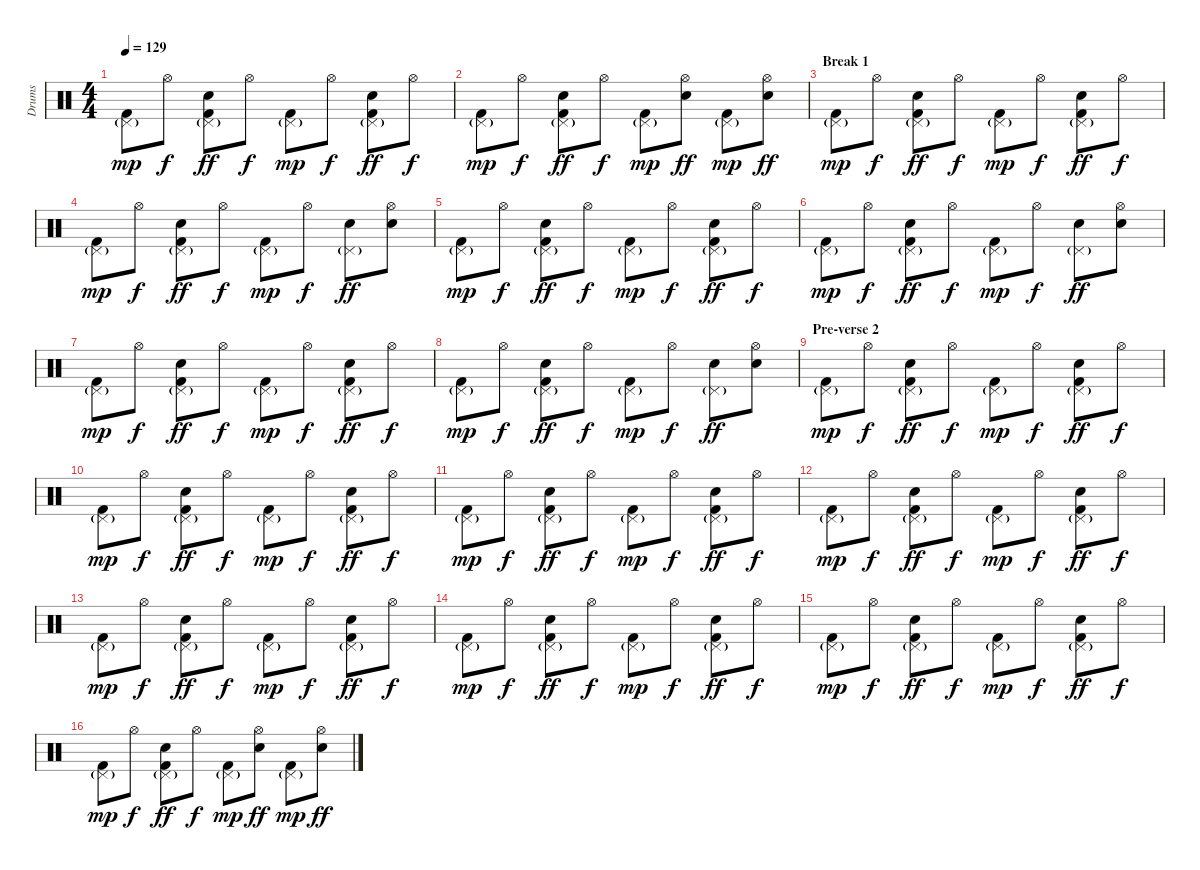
\track ("Drums" "Drums") {instrument percussion}
\staff {score}
\articulation defaults
\ts (4 4)
\tempo 129
\clef neutral
\ks c
("Pedal Hi-Hat (hit)"{g} "Kick (hit) 2").8{dy mp} "Hi-Hat (open)".8{dy f} ("Pedal Hi-Hat (hit)"{g} "Electric Snare (hit)" "Kick (hit) 2").8{dy ff} "Hi-Hat (open)".8{dy f} ("Pedal Hi-Hat (hit)"{g} "Kick (hit) 2").8{dy mp} "Hi-Hat (open)".8{dy f} ("Pedal Hi-Hat (hit)"{g} "Electric Snare (hit)" "Kick (hit) 2").8{dy ff} "Hi-Hat (open)".8{dy f} |
("Pedal Hi-Hat (hit)"{g} "Kick (hit) 2").8{dy mp} "Hi-Hat (open)".8{dy f} ("Pedal Hi-Hat (hit)"{g} "Electric Snare (hit)" "Kick (hit) 2").8{dy ff} "Hi-Hat (open)".8{dy f} ("Pedal Hi-Hat (hit)"{g} "Kick (hit) 2").8{dy mp} ("Hi-Hat (open)" "Electric Snare (hit)").8{dy ff} ("Pedal Hi-Hat (hit)"{g} "Kick (hit) 2").8{dy mp} ("Hi-Hat (open)" "Electric Snare (hit)").8{dy ff} |
\section ("" "Break 1")
("Pedal Hi-Hat (hit)"{g} "Kick (hit) 2").8{dy mp} "Hi-Hat (open)".8{dy f} ("Pedal Hi-Hat (hit)"{g} "Electric Snare (hit)" "Kick (hit) 2").8{dy ff} "Hi-Hat (open)".8{dy f} ("Pedal Hi-Hat (hit)"{g} "Kick (hit) 2").8{dy mp} "Hi-Hat (open)".8{dy f} ("Pedal Hi-Hat (hit)"{g} "Electric Snare (hit)" "Kick (hit) 2").8{dy ff} "Hi-Hat (open)".8{dy f} |
("Pedal Hi-Hat (hit)"{g} "Kick (hit) 2").8{dy mp} "Hi-Hat (open)".8{dy f} ("Pedal Hi-Hat (hit)"{g} "Electric Snare (hit)" "Kick (hit) 2").8{dy ff} "Hi-Hat (open)".8{dy f} ("Pedal Hi-Hat (hit)"{g} "Kick (hit) 2").8{dy mp} "Hi-Hat (open)".8{dy f} ("Pedal Hi-Hat (hit)"{g} "Electric Snare (hit)").8{dy ff} ("Hi-Hat (open)" "Electric Snare (hit)").8 |
("Pedal Hi-Hat (hit)"{g} "Kick (hit) 2").8{dy mp} "Hi-Hat (open)".8{dy f} ("Pedal Hi-Hat (hit)"{g} "Electric Snare (hit)" "Kick (hit) 2").8{dy ff} "Hi-Hat (open)".8{dy f} ("Pedal Hi-Hat (hit)"{g} "Kick (hit) 2").8{dy mp} "Hi-Hat (open)".8{dy f} ("Pedal Hi-Hat (hit)"{g} "Electric Snare (hit)" "Kick (hit) 2").8{dy ff} "Hi-Hat (open)".8{dy f} |
("Pedal Hi-Hat (hit)"{g} "Kick (hit) 2").8{dy mp} "Hi-Hat (open)".8{dy f} ("Pedal Hi-Hat (hit)"{g} "Electric Snare (hit)" "Kick (hit) 2").8{dy ff} "Hi-Hat (open)".8{dy f} ("Pedal Hi-Hat (hit)"{g} "Kick (hit) 2").8{dy mp} "Hi-Hat (open)".8{dy f} ("Pedal Hi-Hat (hit)"{g} "Electric Snare (hit)").8{dy ff} ("Hi-Hat (open)" "Electric Snare (hit)").8 |
("Pedal Hi-Hat (hit)"{g} "Kick (hit) 2").8{dy mp} "Hi-Hat (open)".8{dy f} ("Pedal Hi-Hat (hit)"{g} "Electric Snare (hit)" "Kick (hit) 2").8{dy ff} "Hi-Hat (open)".8{dy f} ("Pedal Hi-Hat (hit)"{g} "Kick (hit) 2").8{dy mp} "Hi-Hat (open)".8{dy f} ("Pedal Hi-Hat (hit)"{g} "Electric Snare (hit)" "Kick (hit) 2").8{dy ff} "Hi-Hat (open)".8{dy f} |
("Pedal Hi-Hat (hit)"{g} "Kick (hit) 2").8{dy mp} "Hi-Hat (open)".8{dy f} ("Pedal Hi-Hat (hit)"{g} "Electric Snare (hit)" "Kick (hit) 2").8{dy ff} "Hi-Hat (open)".8{dy f} ("Pedal Hi-Hat (hit)"{g} "Kick (hit) 2").8{dy mp} "Hi-Hat (open)".8{dy f} ("Pedal Hi-Hat (hit)"{g} "Electric Snare (hit)").8{dy ff} ("Hi-Hat (open)" "Electric Snare (hit)").8 |
\section ("" "Pre-verse 2")
("Pedal Hi-Hat (hit)"{g} "Kick (hit) 2").8{dy mp} "Hi-Hat (open)".8{dy f} ("Pedal Hi-Hat (hit)"{g} "Electric Snare (hit)" "Kick (hit) 2").8{dy ff} "Hi-Hat (open)".8{dy f} ("Pedal Hi-Hat (hit)"{g} "Kick (hit) 2").8{dy mp} "Hi-Hat (open)".8{dy f} ("Pedal Hi-Hat (hit)"{g} "Electric Snare (hit)" "Kick (hit) 2").8{dy ff} "Hi-Hat (open)".8{dy f} |
("Pedal Hi-Hat (hit)"{g} "Kick (hit) 2").8{dy mp} "Hi-Hat (open)".8{dy f} ("Pedal Hi-Hat (hit)"{g} "Electric Snare (hit)" "Kick (hit) 2").8{dy ff} "Hi-Hat (open)".8{dy f} ("Pedal Hi-Hat (hit)"{g} "Kick (hit) 2").8{dy mp} "Hi-Hat (open)".8{dy f} ("Pedal Hi-Hat (hit)"{g} "Electric Snare (hit)" "Kick (hit) 2").8{dy ff} "Hi-Hat (open)".8{dy f} |
("Pedal Hi-Hat (hit)"{g} "Kick (hit) 2").8{dy mp} "Hi-Hat (open)".8{dy f} ("Pedal Hi-Hat (hit)"{g} "Electric Snare (hit)" "Kick (hit) 2").8{dy ff} "Hi-Hat (open)".8{dy f} ("Pedal Hi-Hat (hit)"{g} "Kick (hit) 2").8{dy mp} "Hi-Hat (open)".8{dy f} ("Pedal Hi-Hat (hit)"{g} "Electric Snare (hit)" "Kick (hit) 2").8{dy ff} "Hi-Hat (open)".8{dy f} |
("Pedal Hi-Hat (hit)"{g} "Kick (hit) 2").8{dy mp} "Hi-Hat (open)".8{dy f} ("Pedal Hi-Hat (hit)"{g} "Electric Snare (hit)" "Kick (hit) 2").8{dy ff} "Hi-Hat (open)".8{dy f} ("Pedal Hi-Hat (hit)"{g} "Kick (hit) 2").8{dy mp} "Hi-Hat (open)".8{dy f} ("Pedal Hi-Hat (hit)"{g} "Electric Snare (hit)" "Kick (hit) 2").8{dy ff} "Hi-Hat (open)".8{dy f} |
("Pedal Hi-Hat (hit)"{g} "Kick (hit) 2").8{dy mp} "Hi-Hat (open)".8{dy f} ("Pedal Hi-Hat (hit)"{g} "Electric Snare (hit)" "Kick (hit) 2").8{dy ff} "Hi-Hat (open)".8{dy f} ("Pedal Hi-Hat (hit)"{g} "Kick (hit) 2").8{dy mp} "Hi-Hat (open)".8{dy f} ("Pedal Hi-Hat (hit)"{g} "Electric Snare (hit)" "Kick (hit) 2").8{dy ff} "Hi-Hat (open)".8{dy f} |
("Pedal Hi-Hat (hit)"{g} "Kick (hit) 2").8{dy mp} "Hi-Hat (open)".8{dy f} ("Pedal Hi-Hat (hit)"{g} "Electric Snare (hit)" "Kick (hit) 2").8{dy ff} "Hi-Hat (open)".8{dy f} ("Pedal Hi-Hat (hit)"{g} "Kick (hit) 2").8{dy mp} "Hi-Hat (open)".8{dy f} ("Pedal Hi-Hat (hit)"{g} "Electric Snare (hit)" "Kick (hit) 2").8{dy ff} "Hi-Hat (open)".8{dy f} |
("Pedal Hi-Hat (hit)"{g} "Kick (hit) 2").8{dy mp} "Hi-Hat (open)".8{dy f} ("Pedal Hi-Hat (hit)"{g} "Electric Snare (hit)" "Kick (hit) 2").8{dy ff} "Hi-Hat (open)".8{dy f} ("Pedal Hi-Hat (hit)"{g} "Kick (hit) 2").8{dy mp} "Hi-Hat (open)".8{dy f} ("Pedal Hi-Hat (hit)"{g} "Electric Snare (hit)" "Kick (hit) 2").8{dy ff} "Hi-Hat (open)".8{dy f} |
("Pedal Hi-Hat (hit)"{g} "Kick (hit) 2").8{dy mp} "Hi-Hat (open)".8{dy f} ("Pedal Hi-Hat (hit)"{g} "Electric Snare (hit)" "Kick (hit) 2").8{dy ff} "Hi-Hat (open)".8{dy f} ("Pedal Hi-Hat (hit)"{g} "Kick (hit) 2").8{dy mp} ("Hi-Hat (open)" "Electric Snare (hit)").8{dy ff} ("Pedal Hi-Hat (hit)"{g} "Kick (hit) 2").8{dy mp} ("Hi-Hat (open)" "Electric Snare (hit)").8{dy ff}
